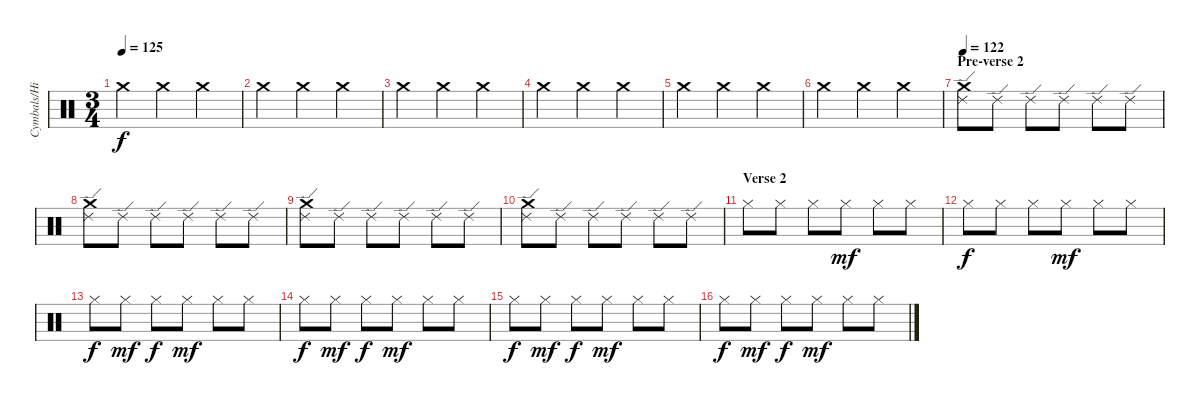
\track ("Cymbals/Hi-hat" "Cymbals/Hi") {instrument percussion}
\staff {score}
\articulation defaults
\ts (3 4)
\tempo 125
\clef neutral
\ks c "Crash medium (hit)".4{dy f} "Crash medium (hit)".4 "Crash medium (hit)".4
|
"Crash medium (hit)".4 "Crash medium (hit)".4 "Crash medium (hit)".4 |
"Crash medium (hit)".4 "Crash medium (hit)".4 "Crash medium (hit)".4 |
"Crash medium (hit)".4 "Crash medium (hit)".4 "Crash medium (hit)".4 |
"Crash medium (hit)".4 "Crash medium (hit)".4 "Crash medium (hit)".4 |
"Crash medium (hit)".4 "Crash medium (hit)".4 "Crash medium (hit)".4 |
\section ("" "Pre-verse 2")
\tempo 122
("Ride (edge) 2" "Crash medium (hit)").8 "Ride (edge) 2".8 "Ride (edge) 2".8 "Ride (edge) 2".8 "Ride (edge) 2".8 "Ride (edge) 2".8 |
("Ride (edge) 2" "Crash medium (hit)").8 "Ride (edge) 2".8 "Ride (edge) 2".8 "Ride (edge) 2".8 "Ride (edge) 2".8 "Ride (edge) 2".8 |
("Ride (edge) 2" "Crash medium (hit)").8 "Ride (edge) 2".8 "Ride (edge) 2".8 "Ride (edge) 2".8 "Ride (edge) 2".8 "Ride (edge) 2".8 |
("Ride (edge) 2" "Crash medium (hit)").8 "Ride (edge) 2".8 "Ride (edge) 2".8 "Ride (edge) 2".8 "Ride (edge) 2".8 "Ride (edge) 2".8 |
\section ("" "Verse 2")
"Hi-Hat (closed)".8 "Hi-Hat (closed)".8 "Hi-Hat (closed)".8 "Hi-Hat (closed)".8{dy mf} "Hi-Hat (closed)".8 "Hi-Hat (closed)".8 |
"Hi-Hat (closed)".8{dy f} "Hi-Hat (closed)".8 "Hi-Hat (closed)".8 "Hi-Hat (closed)".8{dy mf} "Hi-Hat (closed)".8 "Hi-Hat (closed)".8 |
"Hi-Hat (closed)".8{dy f} "Hi-Hat (closed)".8{dy mf} "Hi-Hat (closed)".8{dy f} "Hi-Hat (closed)".8{dy mf} "Hi-Hat (closed)".8 "Hi-Hat (closed)".8 |
"Hi-Hat (closed)".8{dy f} "Hi-Hat (closed)".8{dy mf} "Hi-Hat (closed)".8{dy f} "Hi-Hat (closed)".8{dy mf} "Hi-Hat (closed)".8 "Hi-Hat (closed)".8 |
"Hi-Hat (closed)".8{dy f} "Hi-Hat (closed)".8{dy mf} "Hi-Hat (closed)".8{dy f} "Hi-Hat (closed)".8{dy mf} "Hi-Hat (closed)".8 "Hi-Hat (closed)".8 |
"Hi-Hat (closed)".8{dy f} "Hi-Hat (closed)".8{dy mf} "Hi-Hat (closed)".8{dy f} "Hi-Hat (closed)".8{dy mf} "Hi-Hat (closed)".8 "Hi-Hat (closed)".8
